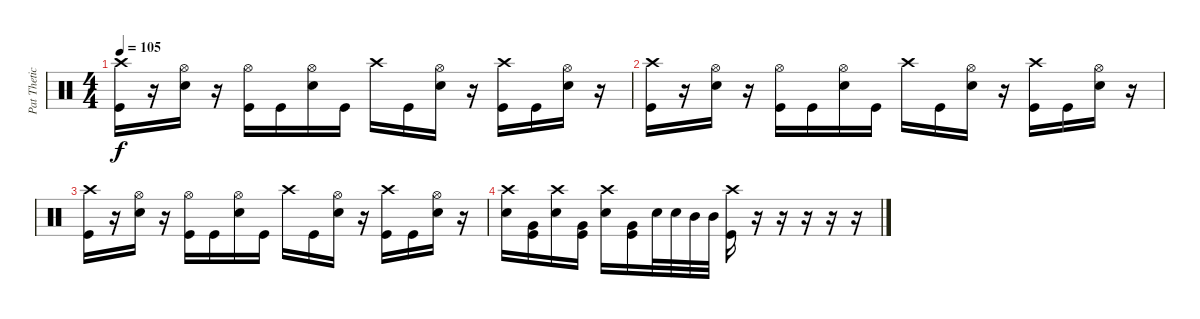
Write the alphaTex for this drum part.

\track ("Pat Thetic" "Pat Thetic") {instrument percussion}
\staff {score}
\articulation defaults
\ts (4 4)
\tempo 105
\clef neutral
\ks c
("Crash high (hit)" "Kick (hit)").16{dy f} r.16 ("Hi-Hat (open)" "Snare (hit) 2").16 r.16 ("Hi-Hat (open)" "Kick (hit)").16 "Kick (hit)".16 ("Hi-Hat (open)" "Snare (hit) 2").16 "Kick (hit)".16 "Crash high (hit)".16 "Kick (hit)".16 ("Hi-Hat (open)" "Snare (hit) 2").16 r.16 ("Crash high (hit)" "Kick (hit)").16 "Kick (hit)".16 ("Hi-Hat (open)" "Snare (hit) 2").16 r.16 |
("Crash high (hit)" "Kick (hit)").16 r.16 ("Hi-Hat (open)" "Snare (hit) 2").16 r.16 ("Hi-Hat (open)" "Kick (hit)").16 "Kick (hit)".16 ("Hi-Hat (open)" "Snare (hit) 2").16 "Kick (hit)".16 "Crash high (hit)".16 "Kick (hit)".16 ("Hi-Hat (open)" "Snare (hit) 2").16 r.16 ("Crash high (hit)" "Kick (hit)").16 "Kick (hit)".16 ("Hi-Hat (open)" "Snare (hit) 2").16 r.16 |
("Crash high (hit)" "Kick (hit)").16 r.16 ("Hi-Hat (open)" "Snare (hit) 2").16 r.16 ("Hi-Hat (open)" "Kick (hit)").16 "Kick (hit)".16 ("Hi-Hat (open)" "Snare (hit) 2").16 "Kick (hit)".16 "Crash high (hit)".16 "Kick (hit)".16 ("Hi-Hat (open)" "Snare (hit) 2").16 r.16 ("Crash high (hit)" "Kick (hit)").16 "Kick (hit)".16 ("Hi-Hat (open)" "Snare (hit) 2").16 r.16 |
("Snare (hit) 2" "Crash high (hit)").16 ("Very Low Tom (hit)" "Kick (hit)").16 ("Snare (hit) 2" "Crash high (hit)").16 ("Kick (hit)" "Very Low Tom (hit)").16 ("Snare (hit) 2" "Crash high (hit)").16 ("Kick (hit)" "Very Low Tom (hit)").16 "Snare (hit) 2".32 "Snare (hit) 2".32 "Mid Tom (hit)".32 "Mid Tom (hit)".32 ("Crash high (hit)" "Kick (hit)").16 r.16 r.16 r.16 r.16 r.16
